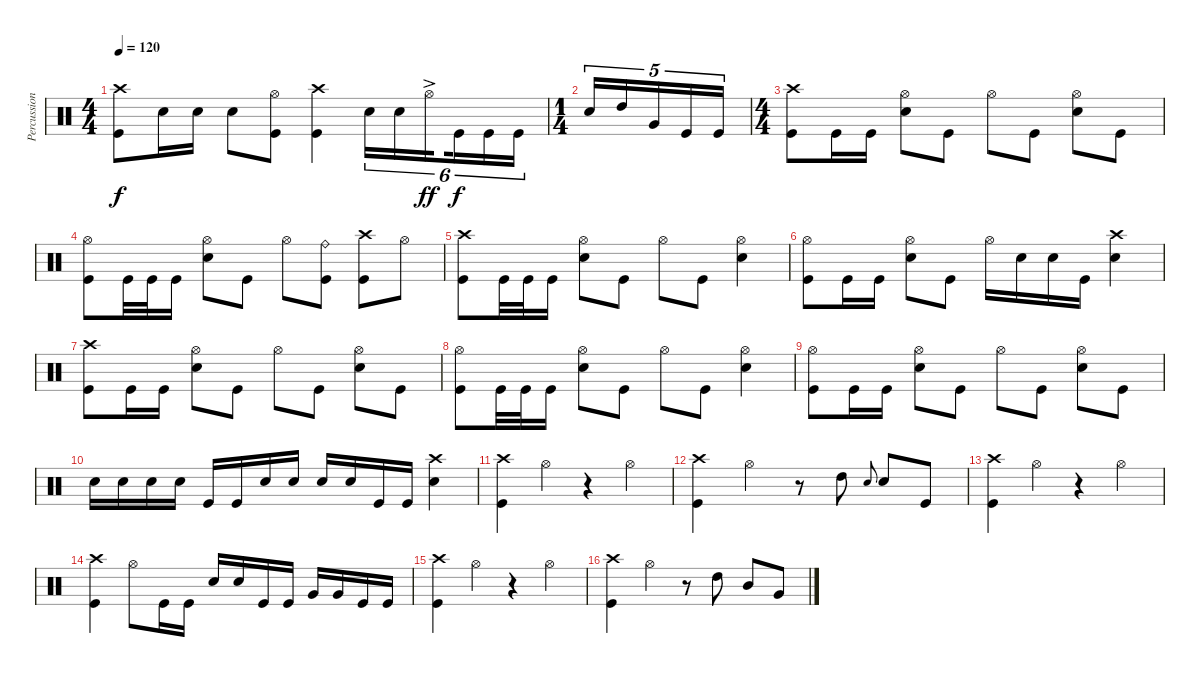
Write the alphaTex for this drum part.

\track ("Percussion" "Percussion") {instrument percussion}
\staff {score}
\articulation defaults
\ts (4 4)
\tempo 120
\clef neutral
\ks c
("Crash high (hit)" "Kick (hit)").8{dy f} "Snare (hit) 2".16 "Snare (hit) 2".16 "Snare (hit) 2".8 ("Hi-Hat (open)" "Kick (hit)").8 ("Crash high (hit)" "Kick (hit)").4 "Snare (hit) 2".16{tu (6 4)} "Snare (hit) 2".16{tu (6 4)} "Hi-Hat (open)"{ac}.16{tu (6 4) dy ff beam splitsecondary} "Kick (hit)".16{tu (6 4) dy f} "Kick (hit)".16{tu (6 4)} "Kick (hit)".16{tu (6 4)} |
\ts (1 4)
"Snare (hit) 2".16{tu (5 4)} "High Tom (hit)".16{tu (5 4)} "Very Low Tom (hit)".16{tu (5 4)} "Kick (hit)".16{tu (5 4)} "Kick (hit)".16{tu (5 4)} |
\ts (4 4)
("Crash high (hit)" "Kick (hit)").8 "Kick (hit)".16 "Kick (hit)".16 ("Snare (hit) 2" "Hi-Hat (open)").8 "Kick (hit)".8 "Hi-Hat (open)".8 "Kick (hit)".8 ("Snare (hit) 2" "Hi-Hat (open)").8 "Kick (hit)".8 |
("Hi-Hat (open)" "Kick (hit)").8 "Kick (hit)".32 "Kick (hit)".32 "Kick (hit)".16 ("Snare (hit) 2" "Hi-Hat (open)").8 "Kick (hit)".8 "Hi-Hat (open)".8 ("Ride (bell)" "Kick (hit)").8 ("Crash high (hit)" "Kick (hit)").8 "Hi-Hat (open)".8 |
("Crash high (hit)" "Kick (hit)").8 "Kick (hit)".32 "Kick (hit)".32 "Kick (hit)".16 ("Hi-Hat (open)" "Snare (hit) 2").8 "Kick (hit)".8 "Hi-Hat (open)".8 "Kick (hit)".8 ("Snare (hit) 2" "Hi-Hat (open)").4 |
("Hi-Hat (open)" "Kick (hit)").8 "Kick (hit)".16 "Kick (hit)".16 ("Snare (hit) 2" "Hi-Hat (open)").8 "Kick (hit)".8 "Hi-Hat (open)".16 "Snare (hit) 2".16 "Snare (hit) 2".16 "Kick (hit)".16 ("Snare (hit) 2" "Crash high (hit)").4 |
("Crash high (hit)" "Kick (hit)").8 "Kick (hit)".16 "Kick (hit)".16 ("Snare (hit) 2" "Hi-Hat (open)").8 "Kick (hit)".8 "Hi-Hat (open)".8 "Kick (hit)".8 ("Snare (hit) 2" "Hi-Hat (open)").8 "Kick (hit)".8 |
("Hi-Hat (open)" "Kick (hit)").8 "Kick (hit)".32 "Kick (hit)".32 "Kick (hit)".16 ("Hi-Hat (open)" "Snare (hit) 2").8 "Kick (hit)".8 "Hi-Hat (open)".8 "Kick (hit)".8 ("Snare (hit) 2" "Hi-Hat (open)").4 |
("Hi-Hat (open)" "Kick (hit)").8 "Kick (hit)".16 "Kick (hit)".16 ("Snare (hit) 2" "Hi-Hat (open)").8 "Kick (hit)".8 "Hi-Hat (open)".8 "Kick (hit)".8 ("Snare (hit) 2" "Hi-Hat (open)").8 "Kick (hit)".8 |
"Snare (hit) 2".16 "Snare (hit) 2".16 "Snare (hit) 2".16 "Snare (hit) 2".16 "Kick (hit)".16 "Kick (hit)".16 "Snare (hit) 2".16 "Snare (hit) 2".16 "Snare (hit) 2".16 "Snare (hit) 2".16 "Kick (hit)".16 "Kick (hit)".16 ("Snare (hit) 2" "Crash high (hit)").4 |
("Crash high (hit)" "Kick (hit)").4 "Hi-Hat (open)".4 r.4 "Hi-Hat (open)".4 |
("Crash high (hit)" "Kick (hit)").4 "Hi-Hat (open)".4 r.8 "High Tom (hit)".8 "Snare (hit) 2".8{gr onbeat} "Snare (hit) 2".8 "Kick (hit)".8 |
("Crash high (hit)" "Kick (hit)").4 "Hi-Hat (open)".4 r.4 "Hi-Hat (open)".4 |
("Crash high (hit)" "Kick (hit)").4 "Hi-Hat (open)".8 "Kick (hit)".16 "Kick (hit)".16 "Snare (hit) 2".16 "Snare (hit) 2".16 "Kick (hit)".16 "Kick (hit)".16 "Very Low Tom (hit)".16 "Very Low Tom (hit)".16 "Kick (hit)".16 "Kick (hit)".16 |
("Crash high (hit)" "Kick (hit)").4 "Hi-Hat (open)".4 r.4 "Hi-Hat (open)".4 |
("Crash high (hit)" "Kick (hit)").4 "Hi-Hat (open)".4 r.8 "High Tom (hit)".8 "Mid Tom (hit)".8 "Very Low Tom (hit)".8
